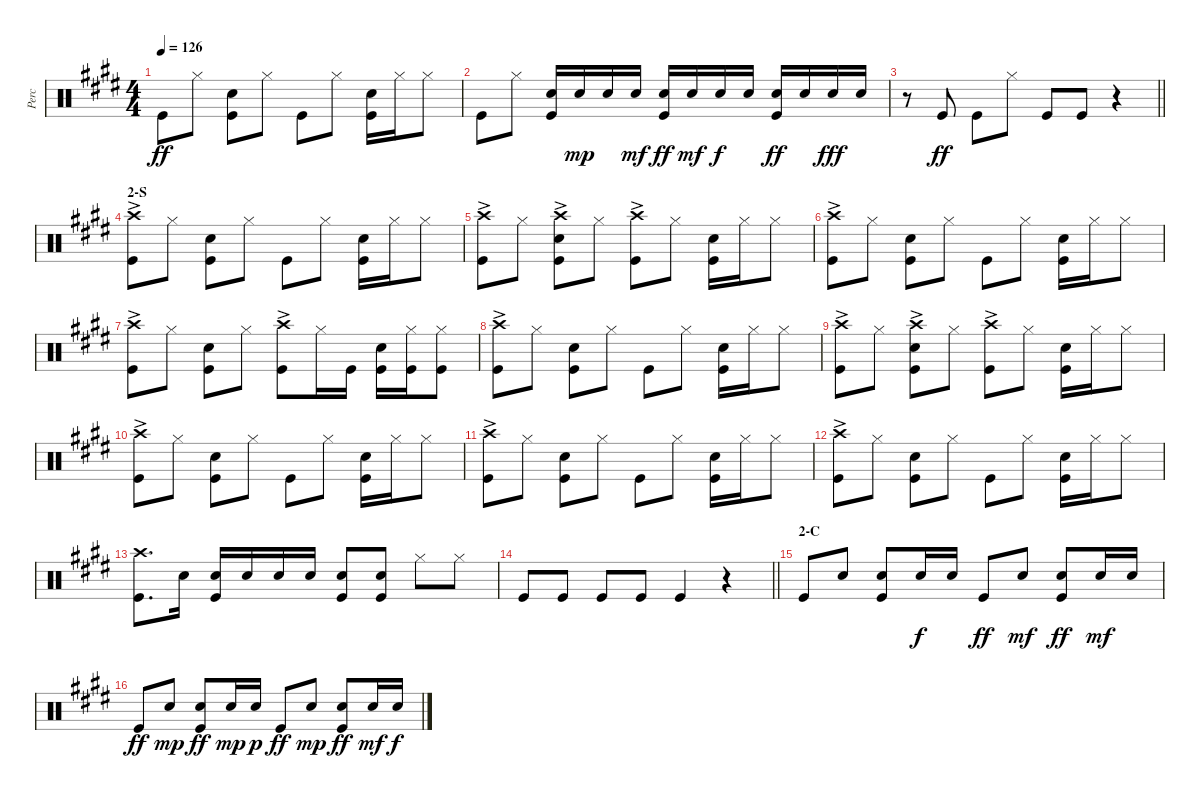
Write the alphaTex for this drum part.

\track ("Perc" "Perc") {instrument percussion}
\staff {score}
\articulation defaults
\ts (4 4)
\tempo 126
\clef neutral
\ks e "Kick (hit)".8{dy ff} "Hi-Hat (closed)".8
("Snare (hit) 2" "Kick (hit)").8 "Hi-Hat (closed)".8 "Kick (hit)".8 "Hi-Hat (closed)".8 ("Snare (hit) 2" "Kick (hit)").16 "Hi-Hat (closed)".16 "Hi-Hat (closed)".8 |
"Kick (hit)".8 "Hi-Hat (closed)".8 ("Snare (hit) 2" "Kick (hit)").16 "Snare (hit) 2".16{dy mp} "Snare (hit) 2".16 "Snare (hit) 2".16{dy mf} ("Snare (hit) 2" "Kick (hit)").16{dy ff} "Snare (hit) 2".16{dy mf} "Snare (hit) 2".16{dy f} "Snare (hit) 2".16 ("Snare (hit) 2" "Kick (hit)").16{dy ff} "Snare (hit) 2".16 "Snare (hit) 2".16{dy fff} "Snare (hit) 2".16 |
\barLineRight lightlight
r.8 "Kick (hit)".8{dy ff} "Kick (hit)".8 "Hi-Hat (closed)".8 "Kick (hit)".8 "Kick (hit)".8 r.4 |
\section ("" "2-S")
("Crash high (hit)"{ac} "Kick (hit)").8 "Hi-Hat (closed)".8 ("Snare (hit) 2" "Kick (hit)").8 "Hi-Hat (closed)".8 "Kick (hit)".8 "Hi-Hat (closed)".8 ("Snare (hit) 2" "Kick (hit)").16 "Hi-Hat (closed)".16 "Hi-Hat (closed)".8 |
("Crash high (hit)"{ac} "Kick (hit)").8 "Hi-Hat (closed)".8 ("Crash high (hit)"{ac} "Snare (hit) 2" "Kick (hit)").8 "Hi-Hat (closed)".8 ("Crash high (hit)"{ac} "Kick (hit)").8 "Hi-Hat (closed)".8 ("Snare (hit) 2" "Kick (hit)").16 "Hi-Hat (closed)".16 "Hi-Hat (closed)".8 |
("Crash high (hit)"{ac} "Kick (hit)").8 "Hi-Hat (closed)".8 ("Snare (hit) 2" "Kick (hit)").8 "Hi-Hat (closed)".8 "Kick (hit)".8 "Hi-Hat (closed)".8 ("Snare (hit) 2" "Kick (hit)").16 "Hi-Hat (closed)".16 "Hi-Hat (closed)".8 |
("Crash high (hit)"{ac} "Kick (hit)").8 "Hi-Hat (closed)".8 ("Snare (hit) 2" "Kick (hit)").8 "Hi-Hat (closed)".8 ("Crash high (hit)"{ac} "Kick (hit)").8 "Hi-Hat (closed)".16 "Kick (hit)".16 ("Snare (hit) 2" "Kick (hit)").16 ("Hi-Hat (closed)" "Kick (hit)").16 ("Hi-Hat (closed)" "Kick (hit)").8 |
("Crash high (hit)"{ac} "Kick (hit)").8 "Hi-Hat (closed)".8 ("Snare (hit) 2" "Kick (hit)").8 "Hi-Hat (closed)".8 "Kick (hit)".8 "Hi-Hat (closed)".8 ("Snare (hit) 2" "Kick (hit)").16 "Hi-Hat (closed)".16 "Hi-Hat (closed)".8 |
("Crash high (hit)"{ac} "Kick (hit)").8 "Hi-Hat (closed)".8 ("Crash high (hit)"{ac} "Snare (hit) 2" "Kick (hit)").8 "Hi-Hat (closed)".8 ("Crash high (hit)"{ac} "Kick (hit)").8 "Hi-Hat (closed)".8 ("Snare (hit) 2" "Kick (hit)").16 "Hi-Hat (closed)".16 "Hi-Hat (closed)".8 |
("Crash high (hit)"{ac} "Kick (hit)").8 "Hi-Hat (closed)".8 ("Snare (hit) 2" "Kick (hit)").8 "Hi-Hat (closed)".8 "Kick (hit)".8 "Hi-Hat (closed)".8 ("Snare (hit) 2" "Kick (hit)").16 "Hi-Hat (closed)".16 "Hi-Hat (closed)".8 |
("Crash high (hit)"{ac} "Kick (hit)").8 "Hi-Hat (closed)".8 ("Snare (hit) 2" "Kick (hit)").8 "Hi-Hat (closed)".8 "Kick (hit)".8 "Hi-Hat (closed)".8 ("Snare (hit) 2" "Kick (hit)").16 "Hi-Hat (closed)".16 "Hi-Hat (closed)".8 |
("Crash high (hit)"{ac} "Kick (hit)").8 "Hi-Hat (closed)".8 ("Snare (hit) 2" "Kick (hit)").8 "Hi-Hat (closed)".8 "Kick (hit)".8 "Hi-Hat (closed)".8 ("Snare (hit) 2" "Kick (hit)").16 "Hi-Hat (closed)".16 "Hi-Hat (closed)".8 |
("Crash high (hit)" "Kick (hit)").8{d} "Snare (hit) 2".16 ("Snare (hit) 2" "Kick (hit)").16 "Snare (hit) 2".16 "Snare (hit) 2".16 "Snare (hit) 2".16 ("Snare (hit) 2" "Kick (hit)").8 ("Snare (hit) 2" "Kick (hit)").8 "Hi-Hat (closed)".8 "Hi-Hat (closed)".8 |
\barLineRight lightlight "Kick (hit)".8 "Kick (hit)".8 "Kick (hit)".8 "Kick (hit)".8 "Kick (hit)".4
r.4 |
\section ("" "2-C")
"Kick (hit)".8 "Snare (hit) 2".8 ("Snare (hit) 2" "Kick (hit)").8 "Electric Snare (hit)".16{dy f} "Electric Snare (hit)".16 "Kick (hit)".8{dy ff} "Electric Snare (hit)".8{dy mf} ("Electric Snare (hit)" "Kick (hit)").8{dy ff} "Electric Snare (hit)".16{dy mf} "Electric Snare (hit)".16 |
"Kick (hit)".8{dy ff} "Snare (hit) 2".8{dy mp} ("Snare (hit) 2" "Kick (hit)").8{dy ff} "Electric Snare (hit)".16{dy mp} "Electric Snare (hit)".16{dy p} "Kick (hit)".8{dy ff} "Electric Snare (hit)".8{dy mp} ("Electric Snare (hit)" "Kick (hit)").8{dy ff} "Electric Snare (hit)".16{dy mf} "Electric Snare (hit)".16{dy f}
